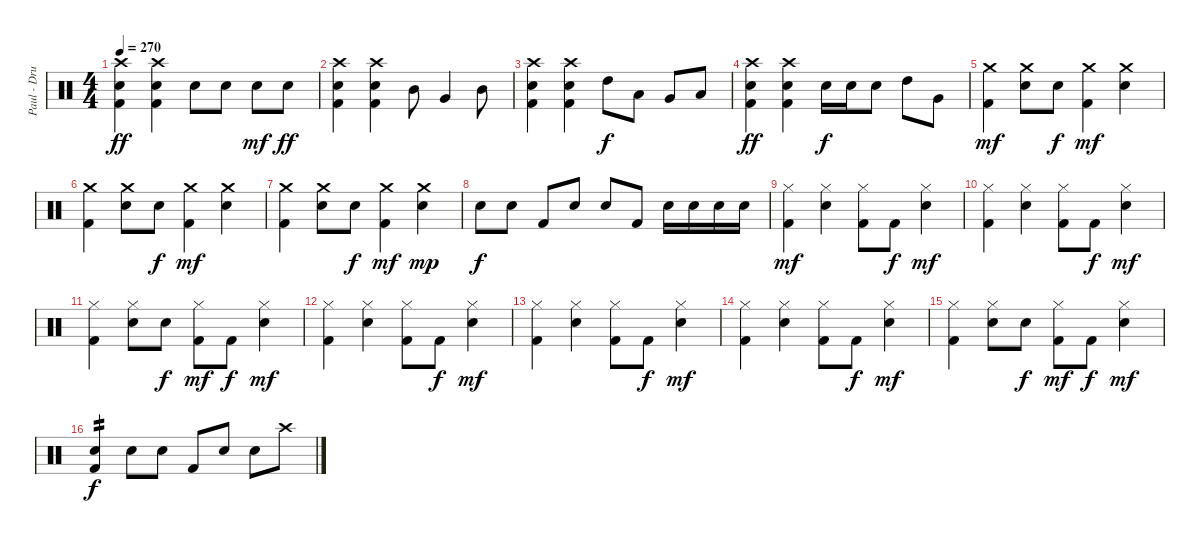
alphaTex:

\track ("Paul - Drums" "Paul - Dru") {instrument percussion}
\staff {score}
\articulation defaults
\ts (4 4)
\tempo 270
\clef neutral
\ks c
("Crash high (hit)" "Electric Snare (hit)" "Kick (hit) 2").4{dy ff} ("Crash high (hit)" "Electric Snare (hit)" "Kick (hit) 2").4 "Electric Snare (hit)".8 "Electric Snare (hit)".8 "Electric Snare (hit)".8{dy mf} "Electric Snare (hit)".8{dy ff} |
("Crash high (hit)" "Electric Snare (hit)" "Kick (hit) 2").4 ("Crash high (hit)" "Electric Snare (hit)" "Kick (hit) 2").4 "Mid Tom (hit)".8 "Very Low Tom (hit)".4 "Mid Tom (hit)".8 |
("Crash high (hit)" "Electric Snare (hit)" "Kick (hit) 2").4 ("Crash high (hit)" "Electric Snare (hit)" "Kick (hit) 2").4 "High Tom (hit)".8{dy f} "Low Tom (hit)".8 "Very Low Tom (hit)".8 "Low Floor Tom (hit)".8 |
("Crash high (hit)" "Electric Snare (hit)" "Kick (hit) 2").4{dy ff} ("Crash high (hit)" "Electric Snare (hit)" "Kick (hit) 2").4 "Electric Snare (hit)".16{dy f} "Electric Snare (hit)".16 "Electric Snare (hit)".8 "High Tom (hit)".8 "Very Low Tom (hit)".8 |
("Crash medium (hit)" "Kick (hit) 2").4{dy mf} ("Crash medium (hit)" "Electric Snare (hit)").8 "Electric Snare (hit)".8{dy f} ("Crash medium (hit)" "Kick (hit) 2").4{dy mf} ("Crash medium (hit)" "Electric Snare (hit)").4 |
("Crash medium (hit)" "Kick (hit) 2").4 ("Crash medium (hit)" "Electric Snare (hit)").8 "Electric Snare (hit)".8{dy f} ("Crash medium (hit)" "Kick (hit) 2").4{dy mf} ("Crash medium (hit)" "Electric Snare (hit)").4 |
("Crash medium (hit)" "Kick (hit) 2").4 ("Crash medium (hit)" "Electric Snare (hit)").8 "Electric Snare (hit)".8{dy f} ("Crash medium (hit)" "Kick (hit) 2").4{dy mf} ("Crash medium (hit)" "Electric Snare (hit)").4{dy mp} |
"Electric Snare (hit)".8{dy f} "Electric Snare (hit)".8 "Kick (hit) 2".8 "Electric Snare (hit)".8 "Electric Snare (hit)".8 "Kick (hit) 2".8 "Electric Snare (hit)".16 "Electric Snare (hit)".16 "Electric Snare (hit)".16 "Electric Snare (hit)".16 |
("Hi-Hat (closed)" "Kick (hit) 2").4{dy mf} ("Hi-Hat (closed)" "Electric Snare (hit)").4 ("Hi-Hat (closed)" "Kick (hit) 2").8 "Kick (hit) 2".8{dy f} ("Hi-Hat (closed)" "Electric Snare (hit)").4{dy mf} |
("Hi-Hat (closed)" "Kick (hit) 2").4 ("Hi-Hat (closed)" "Electric Snare (hit)").4 ("Hi-Hat (closed)" "Kick (hit) 2").8 "Kick (hit) 2".8{dy f} ("Hi-Hat (closed)" "Electric Snare (hit)").4{dy mf} |
("Hi-Hat (closed)" "Kick (hit) 2").4 ("Hi-Hat (closed)" "Electric Snare (hit)").8 "Electric Snare (hit)".8{dy f} ("Hi-Hat (closed)" "Kick (hit) 2").8{dy mf} "Kick (hit) 2".8{dy f} ("Hi-Hat (closed)" "Electric Snare (hit)").4{dy mf} |
("Hi-Hat (closed)" "Kick (hit) 2").4 ("Hi-Hat (closed)" "Electric Snare (hit)").4 ("Hi-Hat (closed)" "Kick (hit) 2").8 "Kick (hit) 2".8{dy f} ("Hi-Hat (closed)" "Electric Snare (hit)").4{dy mf} |
("Hi-Hat (closed)" "Kick (hit) 2").4 ("Hi-Hat (closed)" "Electric Snare (hit)").4 ("Hi-Hat (closed)" "Kick (hit) 2").8 "Kick (hit) 2".8{dy f} ("Hi-Hat (closed)" "Electric Snare (hit)").4{dy mf} |
("Hi-Hat (closed)" "Kick (hit) 2").4 ("Hi-Hat (closed)" "Electric Snare (hit)").4 ("Hi-Hat (closed)" "Kick (hit) 2").8 "Kick (hit) 2".8{dy f} ("Hi-Hat (closed)" "Electric Snare (hit)").4{dy mf} |
("Hi-Hat (closed)" "Kick (hit) 2").4 ("Hi-Hat (closed)" "Electric Snare (hit)").8 "Electric Snare (hit)".8{dy f} ("Hi-Hat (closed)" "Kick (hit) 2").8{dy mf} "Kick (hit) 2".8{dy f} ("Hi-Hat (closed)" "Electric Snare (hit)").4{dy mf} |
("Electric Snare (hit)" "Kick (hit) 2").4{tp 2 dy f} "Electric Snare (hit)".8 "Electric Snare (hit)".8 "Kick (hit) 2".8 "Electric Snare (hit)".8 "Electric Snare (hit)".8 "Crash high (hit)".8
